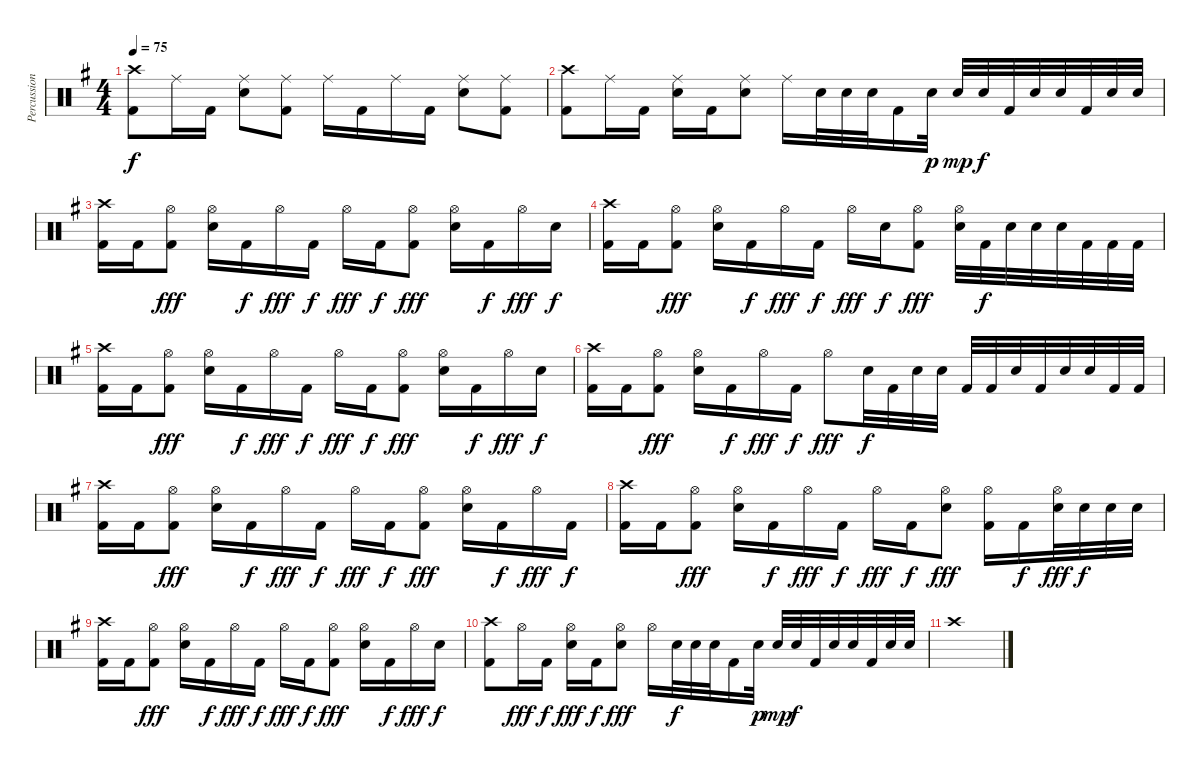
\track ("Percussion" "Percussion") {instrument percussion}
\staff {score}
\articulation defaults
\ts (4 4)
\tempo 75
\clef neutral
\ks eminor
("Crash high (hit)" "Kick (hit) 2").8{dy f} "Ride (middle)".16 "Kick (hit) 2".16 ("Ride (middle)" "Electric Snare (hit)").8 ("Ride (middle)" "Kick (hit) 2").8 "Ride (middle)".16 "Kick (hit) 2".16 "Ride (middle)".16 "Kick (hit) 2".16 ("Ride (middle)" "Electric Snare (hit)").8 ("Ride (middle)" "Kick (hit) 2").8 |
("Crash high (hit)" "Kick (hit) 2").8 "Ride (middle)".16 "Kick (hit) 2".16 ("Ride (middle)" "Electric Snare (hit)").16 "Kick (hit) 2".16 ("Ride (middle)" "Electric Snare (hit)").8 "Ride (middle)".16 "Electric Snare (hit)".32 "Electric Snare (hit)".32 "Electric Snare (hit)".32 "Kick (hit) 2".16 "Electric Snare (hit)".32{dy p} "Electric Snare (hit)".32{dy mp} "Electric Snare (hit)".32{dy f} "Kick (hit) 2".32 "Electric Snare (hit)".32 "Electric Snare (hit)".32 "Kick (hit) 2".32 "Electric Snare (hit)".32 "Electric Snare (hit)".32 |
("Crash high (hit)" "Kick (hit) 2").16 "Kick (hit) 2".16 ("Hi-Hat (open)" "Kick (hit) 2").8{dy fff} ("Hi-Hat (open)" "Electric Snare (hit)").16 "Kick (hit) 2".16{dy f} "Hi-Hat (open)".16{dy fff} "Kick (hit) 2".16{dy f} "Hi-Hat (open)".16{dy fff} "Kick (hit) 2".16{dy f} ("Hi-Hat (open)" "Kick (hit) 2").8{dy fff} ("Hi-Hat (open)" "Electric Snare (hit)").16 "Kick (hit) 2".16{dy f} "Hi-Hat (open)".16{dy fff} "Electric Snare (hit)".16{dy f} |
("Crash high (hit)" "Kick (hit) 2").16 "Kick (hit) 2".16 ("Hi-Hat (open)" "Kick (hit) 2").8{dy fff} ("Hi-Hat (open)" "Electric Snare (hit)").16 "Kick (hit) 2".16{dy f} "Hi-Hat (open)".16{dy fff} "Kick (hit) 2".16{dy f} "Hi-Hat (open)".16{dy fff} "Electric Snare (hit)".16{dy f} ("Hi-Hat (open)" "Kick (hit) 2").8{dy fff} ("Hi-Hat (open)" "Electric Snare (hit)").32 "Kick (hit) 2".32{dy f} "Electric Snare (hit)".32 "Electric Snare (hit)".32 "Electric Snare (hit)".32 "Kick (hit) 2".32 "Kick (hit) 2".32 "Kick (hit) 2".32 |
("Crash high (hit)" "Kick (hit) 2").16 "Kick (hit) 2".16 ("Hi-Hat (open)" "Kick (hit) 2").8{dy fff} ("Hi-Hat (open)" "Electric Snare (hit)").16 "Kick (hit) 2".16{dy f} "Hi-Hat (open)".16{dy fff} "Kick (hit) 2".16{dy f} "Hi-Hat (open)".16{dy fff} "Kick (hit) 2".16{dy f} ("Hi-Hat (open)" "Kick (hit) 2").8{dy fff} ("Hi-Hat (open)" "Electric Snare (hit)").16 "Kick (hit) 2".16{dy f} "Hi-Hat (open)".16{dy fff} "Electric Snare (hit)".16{dy f} |
("Crash high (hit)" "Kick (hit) 2").16 "Kick (hit) 2".16 ("Hi-Hat (open)" "Kick (hit) 2").8{dy fff} ("Hi-Hat (open)" "Electric Snare (hit)").16 "Kick (hit) 2".16{dy f} "Hi-Hat (open)".16{dy fff} "Kick (hit) 2".16{dy f} "Hi-Hat (open)".8{dy fff} "Electric Snare (hit)".32{dy f} "Kick (hit) 2".32 "Electric Snare (hit)".32 "Electric Snare (hit)".32 "Kick (hit) 2".32 "Kick (hit) 2".32 "Electric Snare (hit)".32 "Kick (hit) 2".32 "Electric Snare (hit)".32 "Electric Snare (hit)".32 "Kick (hit) 2".32 "Kick (hit) 2".32 |
("Crash high (hit)" "Kick (hit) 2").16 "Kick (hit) 2".16 ("Hi-Hat (open)" "Kick (hit) 2").8{dy fff} ("Hi-Hat (open)" "Electric Snare (hit)").16 "Kick (hit) 2".16{dy f} "Hi-Hat (open)".16{dy fff} "Kick (hit) 2".16{dy f} "Hi-Hat (open)".16{dy fff} "Kick (hit) 2".16{dy f} ("Hi-Hat (open)" "Kick (hit) 2").8{dy fff} ("Hi-Hat (open)" "Electric Snare (hit)").16 "Kick (hit) 2".16{dy f} "Hi-Hat (open)".16{dy fff} "Kick (hit) 2".16{dy f} |
("Crash high (hit)" "Kick (hit) 2").16 "Kick (hit) 2".16 ("Hi-Hat (open)" "Kick (hit) 2").8{dy fff} ("Hi-Hat (open)" "Electric Snare (hit)").16 "Kick (hit) 2".16{dy f} "Hi-Hat (open)".16{dy fff} "Kick (hit) 2".16{dy f} "Hi-Hat (open)".16{dy fff} "Kick (hit) 2".16{dy f} ("Hi-Hat (open)" "Electric Snare (hit)").8{dy fff} ("Hi-Hat (open)" "Kick (hit) 2").16 "Kick (hit) 2".16{dy f} ("Hi-Hat (open)" "Electric Snare (hit)").32{dy fff} "Electric Snare (hit)".32{dy f} "Electric Snare (hit)".32 "Electric Snare (hit)".32 |
("Crash high (hit)" "Kick (hit) 2").16 "Kick (hit) 2".16 ("Hi-Hat (open)" "Kick (hit) 2").8{dy fff} ("Hi-Hat (open)" "Electric Snare (hit)").16 "Kick (hit) 2".16{dy f} "Hi-Hat (open)".16{dy fff} "Kick (hit) 2".16{dy f} "Hi-Hat (open)".16{dy fff} "Kick (hit) 2".16{dy f} ("Hi-Hat (open)" "Kick (hit) 2").8{dy fff} ("Hi-Hat (open)" "Electric Snare (hit)").16 "Kick (hit) 2".16{dy f} "Hi-Hat (open)".16{dy fff} "Electric Snare (hit)".16{dy f} |
("Crash high (hit)" "Kick (hit) 2").8 "Hi-Hat (open)".16{dy fff} "Kick (hit) 2".16{dy f} ("Hi-Hat (open)" "Electric Snare (hit)").16{dy fff} "Kick (hit) 2".16{dy f} ("Hi-Hat (open)" "Electric Snare (hit)").8{dy fff} "Hi-Hat (open)".16 "Electric Snare (hit)".32{dy f} "Electric Snare (hit)".32 "Electric Snare (hit)".32 "Kick (hit) 2".16 "Electric Snare (hit)".32{dy p} "Electric Snare (hit)".32{dy mp} "Electric Snare (hit)".32{dy f} "Kick (hit) 2".32 "Electric Snare (hit)".32 "Electric Snare (hit)".32 "Kick (hit) 2".32 "Electric Snare (hit)".32 "Electric Snare (hit)".32 |
"Crash high (hit)".1
